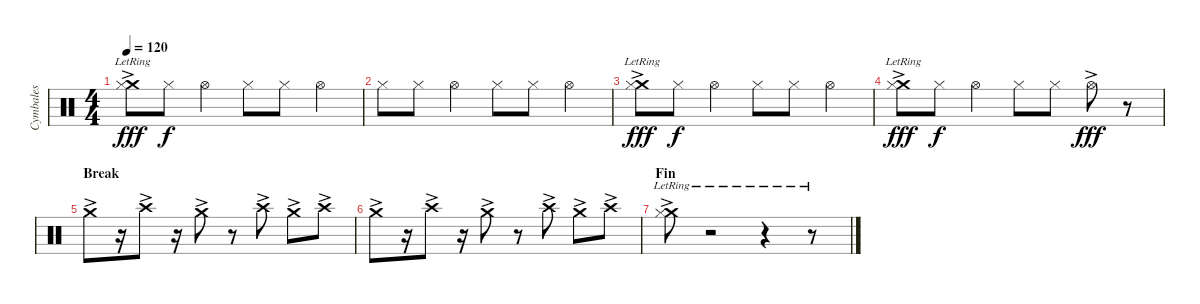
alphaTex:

\track ("Cymbales" "Cymbales") {instrument percussion}
\staff {score}
\articulation defaults
\ts (4 4)
\tempo 120
\clef neutral
\ks c
("Crash medium (hit)"{ac lr} "Hi-Hat (closed)").8{dy fff} "Hi-Hat (closed)".8{dy f} "Hi-Hat (open)".4 "Hi-Hat (closed)".8 "Hi-Hat (closed)".8 "Hi-Hat (open)".4 |
"Hi-Hat (closed)".8 "Hi-Hat (closed)".8 "Hi-Hat (open)".4 "Hi-Hat (closed)".8 "Hi-Hat (closed)".8 "Hi-Hat (open)".4 |
("Crash medium (hit)"{ac lr} "Hi-Hat (closed)").8{dy fff} "Hi-Hat (closed)".8{dy f} "Hi-Hat (open)".4 "Hi-Hat (closed)".8 "Hi-Hat (closed)".8 "Hi-Hat (open)".4 |
("Crash medium (hit)"{ac lr} "Hi-Hat (closed)").8{dy fff} "Hi-Hat (closed)".8{dy f} "Hi-Hat (open)".4 "Hi-Hat (closed)".8 "Hi-Hat (closed)".8 "Hi-Hat (open)"{ac}.8{dy fff} r.8 |
\section ("" "Break")
"Crash medium (hit)"{ac}.8 r.16 "Crash high (hit)"{ac}.8 r.16 "Crash medium (hit)"{ac}.8 r.8 "Crash high (hit)"{ac}.8 "Crash medium (hit)"{ac}.8 "Crash high (hit)"{ac}.8 |
"Crash medium (hit)"{ac}.8 r.16 "Crash high (hit)"{ac}.8 r.16 "Crash medium (hit)"{ac}.8 r.8 "Crash high (hit)"{ac}.8 "Crash medium (hit)"{ac}.8 "Crash high (hit)"{ac}.8 |
\section ("" "Fin")
("Crash medium (hit)"{ac lr} "Hi-Hat (closed)").8 r.2 r.4 r.8
